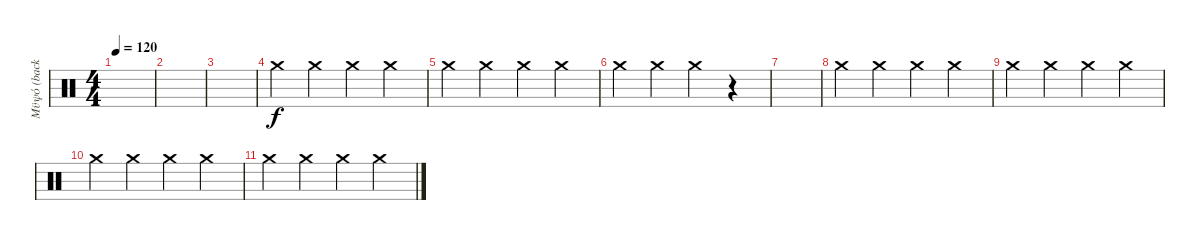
\track ("Μϋψό (back percussion)" "Μϋψό (back") {instrument percussion}
\staff {score}
\articulation defaults
\ts (4 4)
\tempo 120
\clef neutral
\ks c
|
|
|
"Crash medium (hit)".4 "Crash medium (hit)".4 "Crash medium (hit)".4 "Crash medium (hit)".4 |
"Crash medium (hit)".4 "Crash medium (hit)".4 "Crash medium (hit)".4 "Crash medium (hit)".4 |
"Crash medium (hit)".4 "Crash medium (hit)".4 "Crash medium (hit)".4 r.4 |
|
"Crash medium (hit)".4 "Crash medium (hit)".4 "Crash medium (hit)".4 "Crash medium (hit)".4 |
"Crash medium (hit)".4 "Crash medium (hit)".4 "Crash medium (hit)".4 "Crash medium (hit)".4 |
"Crash medium (hit)".4 "Crash medium (hit)".4 "Crash medium (hit)".4 "Crash medium (hit)".4 |
"Crash medium (hit)".4 "Crash medium (hit)".4 "Crash medium (hit)".4 "Crash medium (hit)".4
